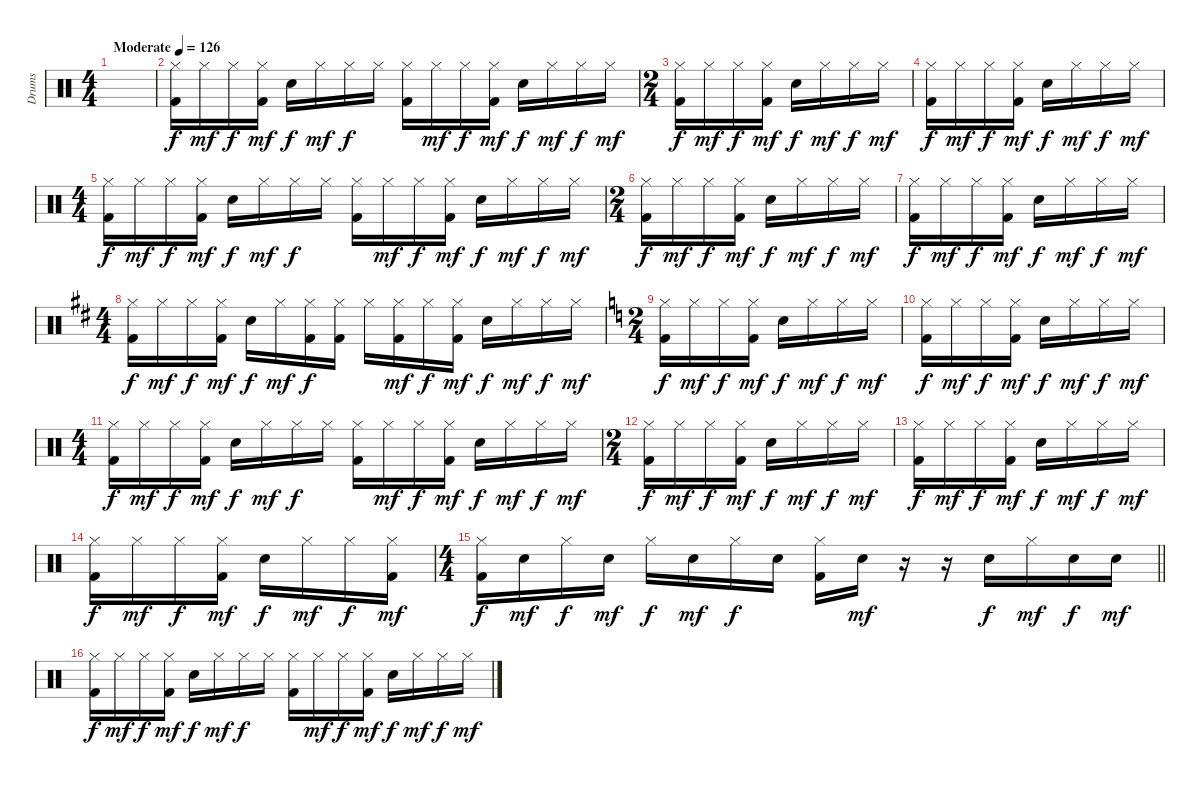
\track ("Drums" "Drums") {instrument percussion}
\staff {score}
\articulation defaults
\ts (4 4)
\tempo (126 "Moderate")
\clef neutral
\ks c
|
("Hi-Hat (closed)" "Kick (hit) 2").16 "Hi-Hat (closed)".16{dy mf} "Hi-Hat (closed)".16{dy f} ("Hi-Hat (closed)" "Kick (hit) 2").16{dy mf} "Snare (hit) 2".16{dy f} "Hi-Hat (closed)".16{dy mf} "Hi-Hat (closed)".16{dy f} "Hi-Hat (closed)".16 ("Hi-Hat (closed)" "Kick (hit) 2").16 "Hi-Hat (closed)".16{dy mf} "Hi-Hat (closed)".16{dy f} ("Hi-Hat (closed)" "Kick (hit) 2").16{dy mf} "Snare (hit) 2".16{dy f} "Hi-Hat (closed)".16{dy mf} "Hi-Hat (closed)".16{dy f} "Hi-Hat (closed)".16{dy mf} |
\ts (2 4)
("Hi-Hat (closed)" "Kick (hit) 2").16{dy f} "Hi-Hat (closed)".16{dy mf} "Hi-Hat (closed)".16{dy f} ("Hi-Hat (closed)" "Kick (hit) 2").16{dy mf} "Snare (hit) 2".16{dy f} "Hi-Hat (closed)".16{dy mf} "Hi-Hat (closed)".16{dy f} "Hi-Hat (closed)".16{dy mf} |
("Hi-Hat (closed)" "Kick (hit) 2").16{dy f} "Hi-Hat (closed)".16{dy mf} "Hi-Hat (closed)".16{dy f} ("Hi-Hat (closed)" "Kick (hit) 2").16{dy mf} "Snare (hit) 2".16{dy f} "Hi-Hat (closed)".16{dy mf} "Hi-Hat (closed)".16{dy f} "Hi-Hat (closed)".16{dy mf} |
\ts (4 4)
("Hi-Hat (closed)" "Kick (hit) 2").16{dy f} "Hi-Hat (closed)".16{dy mf} "Hi-Hat (closed)".16{dy f} ("Hi-Hat (closed)" "Kick (hit) 2").16{dy mf} "Snare (hit) 2".16{dy f} "Hi-Hat (closed)".16{dy mf} "Hi-Hat (closed)".16{dy f} "Hi-Hat (closed)".16 ("Hi-Hat (closed)" "Kick (hit) 2").16 "Hi-Hat (closed)".16{dy mf} "Hi-Hat (closed)".16{dy f} ("Hi-Hat (closed)" "Kick (hit) 2").16{dy mf} "Snare (hit) 2".16{dy f} "Hi-Hat (closed)".16{dy mf} "Hi-Hat (closed)".16{dy f} "Hi-Hat (closed)".16{dy mf} |
\ts (2 4)
("Hi-Hat (closed)" "Kick (hit) 2").16{dy f} "Hi-Hat (closed)".16{dy mf} "Hi-Hat (closed)".16{dy f} ("Hi-Hat (closed)" "Kick (hit) 2").16{dy mf} "Snare (hit) 2".16{dy f} "Hi-Hat (closed)".16{dy mf} "Hi-Hat (closed)".16{dy f} "Hi-Hat (closed)".16{dy mf} |
("Hi-Hat (closed)" "Kick (hit) 2").16{dy f} "Hi-Hat (closed)".16{dy mf} "Hi-Hat (closed)".16{dy f} ("Hi-Hat (closed)" "Kick (hit) 2").16{dy mf} "Snare (hit) 2".16{dy f} "Hi-Hat (closed)".16{dy mf} "Hi-Hat (closed)".16{dy f} "Hi-Hat (closed)".16{dy mf} |
\ts (4 4)
\ks d
("Hi-Hat (closed)" "Kick (hit) 2").16{dy f} "Hi-Hat (closed)".16{dy mf} "Hi-Hat (closed)".16{dy f} ("Hi-Hat (closed)" "Kick (hit) 2").16{dy mf} "Snare (hit) 2".16{dy f} "Hi-Hat (closed)".16{dy mf} ("Hi-Hat (closed)" "Kick (hit) 2").16{dy f} ("Hi-Hat (closed)" "Kick (hit) 2").16 "Hi-Hat (closed)".16 ("Hi-Hat (closed)" "Kick (hit) 2").16{dy mf} "Hi-Hat (closed)".16{dy f} ("Hi-Hat (closed)" "Kick (hit) 2").16{dy mf} "Snare (hit) 2".16{dy f} "Hi-Hat (closed)".16{dy mf} "Hi-Hat (closed)".16{dy f} "Hi-Hat (closed)".16{dy mf} |
\ts (2 4)
\ks c
("Hi-Hat (closed)" "Kick (hit) 2").16{dy f} "Hi-Hat (closed)".16{dy mf} "Hi-Hat (closed)".16{dy f} ("Hi-Hat (closed)" "Kick (hit) 2").16{dy mf} "Snare (hit) 2".16{dy f} "Hi-Hat (closed)".16{dy mf} "Hi-Hat (closed)".16{dy f} "Hi-Hat (closed)".16{dy mf} |
("Hi-Hat (closed)" "Kick (hit) 2").16{dy f} "Hi-Hat (closed)".16{dy mf} "Hi-Hat (closed)".16{dy f} ("Hi-Hat (closed)" "Kick (hit) 2").16{dy mf} "Snare (hit) 2".16{dy f} "Hi-Hat (closed)".16{dy mf} "Hi-Hat (closed)".16{dy f} "Hi-Hat (closed)".16{dy mf} |
\ts (4 4)
("Hi-Hat (closed)" "Kick (hit) 2").16{dy f} "Hi-Hat (closed)".16{dy mf} "Hi-Hat (closed)".16{dy f} ("Hi-Hat (closed)" "Kick (hit) 2").16{dy mf} "Snare (hit) 2".16{dy f} "Hi-Hat (closed)".16{dy mf} "Hi-Hat (closed)".16{dy f} "Hi-Hat (closed)".16 ("Hi-Hat (closed)" "Kick (hit) 2").16 "Hi-Hat (closed)".16{dy mf} "Hi-Hat (closed)".16{dy f} ("Hi-Hat (closed)" "Kick (hit) 2").16{dy mf} "Snare (hit) 2".16{dy f} "Hi-Hat (closed)".16{dy mf} "Hi-Hat (closed)".16{dy f} "Hi-Hat (closed)".16{dy mf} |
\ts (2 4)
("Hi-Hat (closed)" "Kick (hit) 2").16{dy f} "Hi-Hat (closed)".16{dy mf} "Hi-Hat (closed)".16{dy f} ("Hi-Hat (closed)" "Kick (hit) 2").16{dy mf} "Snare (hit) 2".16{dy f} "Hi-Hat (closed)".16{dy mf} "Hi-Hat (closed)".16{dy f} "Hi-Hat (closed)".16{dy mf} |
("Hi-Hat (closed)" "Kick (hit) 2").16{dy f} "Hi-Hat (closed)".16{dy mf} "Hi-Hat (closed)".16{dy f} ("Hi-Hat (closed)" "Kick (hit) 2").16{dy mf} "Snare (hit) 2".16{dy f} "Hi-Hat (closed)".16{dy mf} "Hi-Hat (closed)".16{dy f} "Hi-Hat (closed)".16{dy mf} |
("Hi-Hat (closed)" "Kick (hit) 2").16{dy f} "Hi-Hat (closed)".16{dy mf} "Hi-Hat (closed)".16{dy f} ("Hi-Hat (closed)" "Kick (hit) 2").16{dy mf} "Snare (hit) 2".16{dy f} "Hi-Hat (closed)".16{dy mf} "Hi-Hat (closed)".16{dy f} ("Hi-Hat (closed)" "Kick (hit) 2").16{dy mf} |
\ts (4 4)
\barLineRight lightlight
("Hi-Hat (closed)" "Kick (hit) 2").16{dy f} "Snare (hit) 2".16{dy mf} "Hi-Hat (closed)".16{dy f} "Snare (hit) 2".16{dy mf} "Hi-Hat (closed)".16{dy f} "Snare (hit) 2".16{dy mf} "Hi-Hat (closed)".16{dy f} "Snare (hit) 2".16 ("Hi-Hat (closed)" "Kick (hit) 2").16 "Snare (hit) 2".16{dy mf} r.16 r.16 "Snare (hit) 2".16{dy f} "Hi-Hat (closed)".16{dy mf} "Snare (hit) 2".16{dy f} "Snare (hit) 2".16{dy mf} |
("Hi-Hat (closed)" "Kick (hit) 2").16{dy f} "Hi-Hat (closed)".16{dy mf} "Hi-Hat (closed)".16{dy f} ("Hi-Hat (closed)" "Kick (hit) 2").16{dy mf} "Snare (hit) 2".16{dy f} "Hi-Hat (closed)".16{dy mf} "Hi-Hat (closed)".16{dy f} "Hi-Hat (closed)".16 ("Hi-Hat (closed)" "Kick (hit) 2").16 "Hi-Hat (closed)".16{dy mf} "Hi-Hat (closed)".16{dy f} ("Hi-Hat (closed)" "Kick (hit) 2").16{dy mf} "Snare (hit) 2".16{dy f} "Hi-Hat (closed)".16{dy mf} "Hi-Hat (closed)".16{dy f} "Hi-Hat (closed)".16{dy mf}
